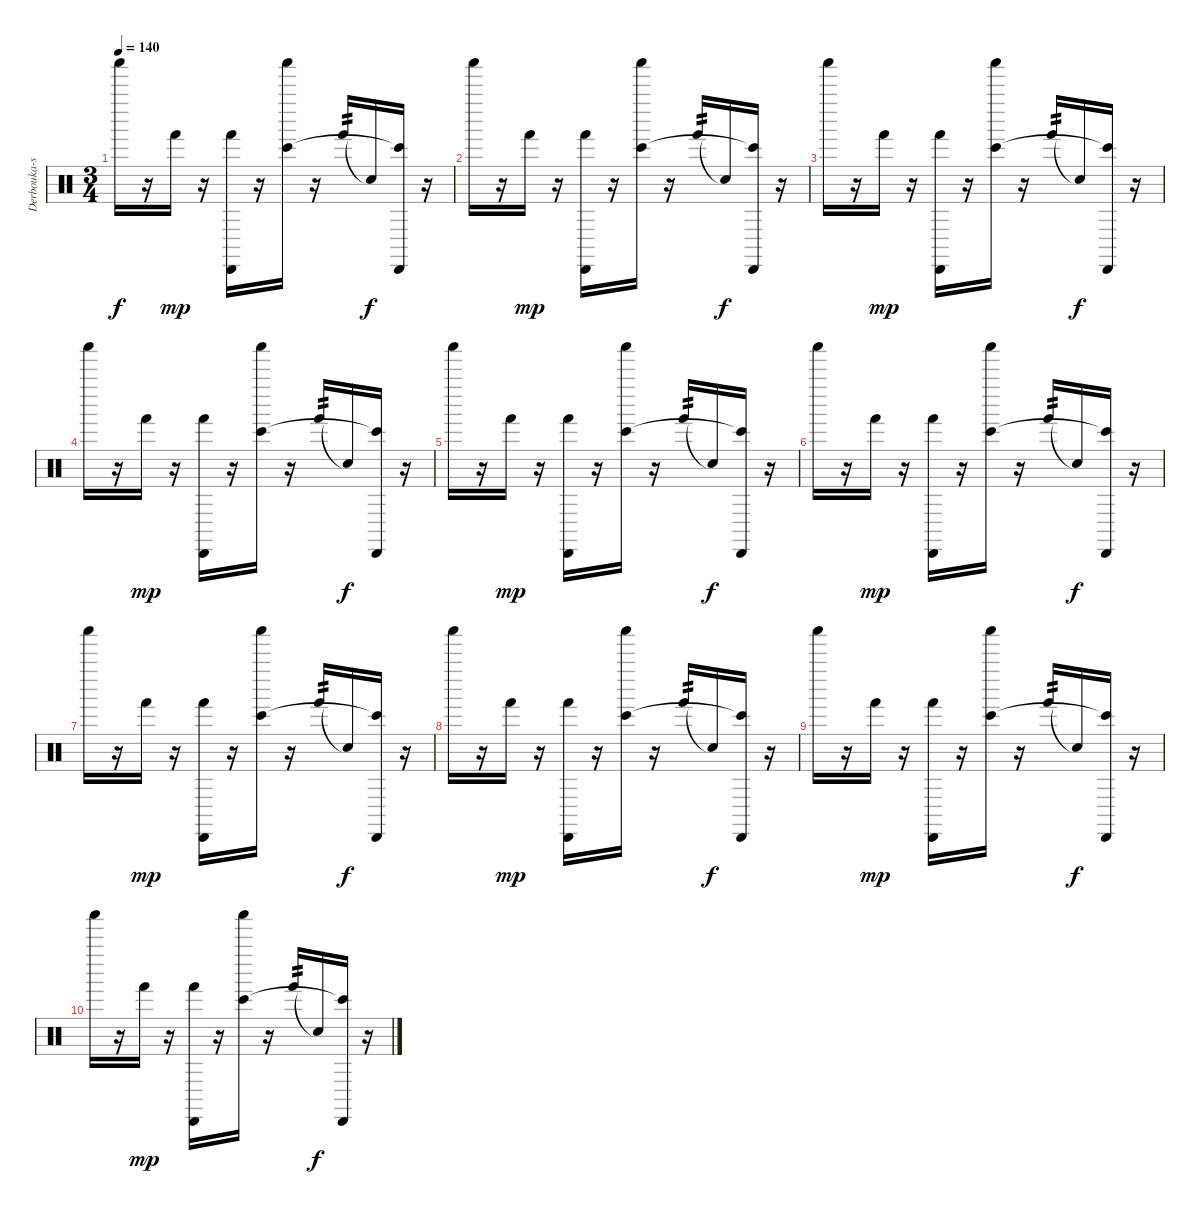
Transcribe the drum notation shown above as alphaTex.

\track ("Derbouka-shaker" "Derbouka-s") {instrument percussion}
\staff {score}
\articulation defaults
\ts (3 4)
\tempo 140
\clef neutral
\ks c "Shaker (hit)".16{dy f}
r.16 "Hand (hit)".16{dy mp} r.16 ("Cabasa (hit)" "Hand (hit)").16 r.16 ("Shaker (hit)" "Bongo High (hit)").16 r.16 "Hand (hit)".16{tp 2} "Snare (hit)"{t}.16{dy f} ("Cabasa (hit)" "Bongo High (hit)"{t}).16 r.16 |
"Shaker (hit)".16 r.16 "Hand (hit)".16{dy mp} r.16 ("Cabasa (hit)" "Hand (hit)").16 r.16 ("Shaker (hit)" "Bongo High (hit)").16 r.16 "Hand (hit)".16{tp 2} "Snare (hit)"{t}.16{dy f} ("Cabasa (hit)" "Bongo High (hit)"{t}).16 r.16 |
"Shaker (hit)".16 r.16 "Hand (hit)".16{dy mp} r.16 ("Cabasa (hit)" "Hand (hit)").16 r.16 ("Shaker (hit)" "Bongo High (hit)").16 r.16 "Hand (hit)".16{tp 2} "Snare (hit)"{t}.16{dy f} ("Cabasa (hit)" "Bongo High (hit)"{t}).16 r.16 |
"Shaker (hit)".16 r.16 "Hand (hit)".16{dy mp} r.16 ("Cabasa (hit)" "Hand (hit)").16 r.16 ("Shaker (hit)" "Bongo High (hit)").16 r.16 "Hand (hit)".16{tp 2} "Snare (hit)"{t}.16{dy f} ("Cabasa (hit)" "Bongo High (hit)"{t}).16 r.16 |
"Shaker (hit)".16 r.16 "Hand (hit)".16{dy mp} r.16 ("Cabasa (hit)" "Hand (hit)").16 r.16 ("Shaker (hit)" "Bongo High (hit)").16 r.16 "Hand (hit)".16{tp 2} "Snare (hit)"{t}.16{dy f} ("Cabasa (hit)" "Bongo High (hit)"{t}).16 r.16 |
"Shaker (hit)".16 r.16 "Hand (hit)".16{dy mp} r.16 ("Cabasa (hit)" "Hand (hit)").16 r.16 ("Shaker (hit)" "Bongo High (hit)").16 r.16 "Hand (hit)".16{tp 2} "Snare (hit)"{t}.16{dy f} ("Cabasa (hit)" "Bongo High (hit)"{t}).16 r.16 |
"Shaker (hit)".16 r.16 "Hand (hit)".16{dy mp} r.16 ("Cabasa (hit)" "Hand (hit)").16 r.16 ("Shaker (hit)" "Bongo High (hit)").16 r.16 "Hand (hit)".16{tp 2} "Snare (hit)"{t}.16{dy f} ("Cabasa (hit)" "Bongo High (hit)"{t}).16 r.16 |
"Shaker (hit)".16 r.16 "Hand (hit)".16{dy mp} r.16 ("Cabasa (hit)" "Hand (hit)").16 r.16 ("Shaker (hit)" "Bongo High (hit)").16 r.16 "Hand (hit)".16{tp 2} "Snare (hit)"{t}.16{dy f} ("Cabasa (hit)" "Bongo High (hit)"{t}).16 r.16 |
"Shaker (hit)".16 r.16 "Hand (hit)".16{dy mp} r.16 ("Cabasa (hit)" "Hand (hit)").16 r.16 ("Shaker (hit)" "Bongo High (hit)").16 r.16 "Hand (hit)".16{tp 2} "Snare (hit)"{t}.16{dy f} ("Cabasa (hit)" "Bongo High (hit)"{t}).16 r.16 |
"Shaker (hit)".16 r.16 "Hand (hit)".16{dy mp} r.16 ("Cabasa (hit)" "Hand (hit)").16 r.16 ("Shaker (hit)" "Bongo High (hit)").16 r.16 "Hand (hit)".16{tp 2} "Snare (hit)"{t}.16{dy f} ("Cabasa (hit)" "Bongo High (hit)"{t}).16 r.16
